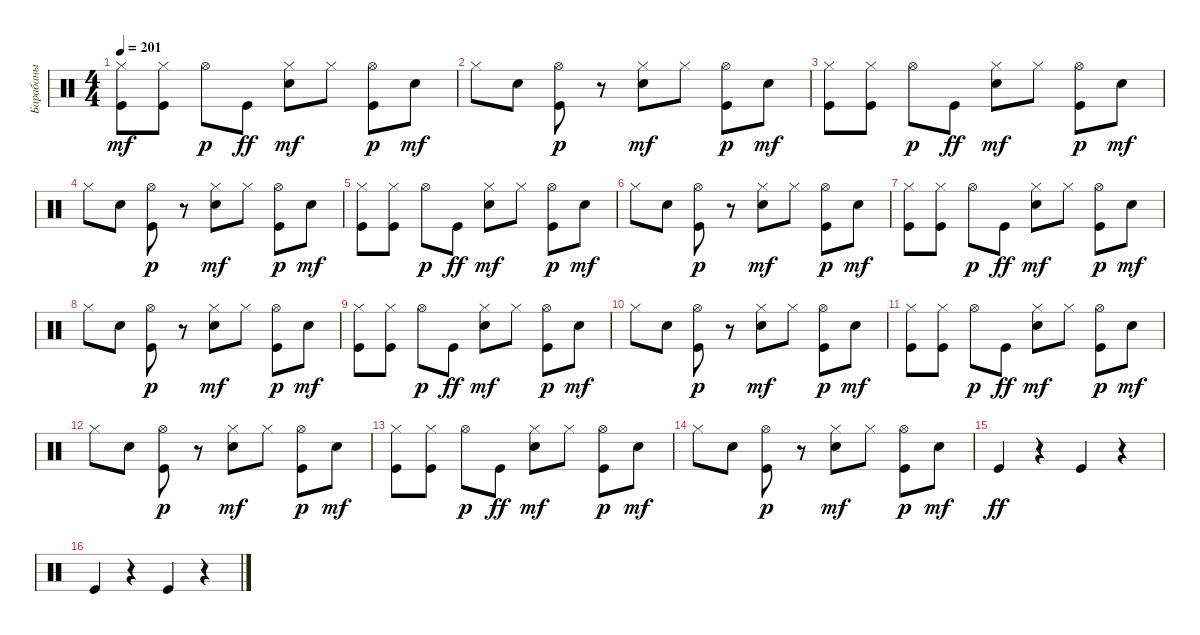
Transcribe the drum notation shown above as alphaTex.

\track ("Барабаны" "Барабаны") {instrument percussion}
\staff {score}
\articulation defaults
\ts (4 4)
\tempo 201
\clef neutral
\ks c
("Kick (hit)" "Hi-Hat (closed)").8{dy mf} ("Kick (hit)" "Hi-Hat (closed)").8 "Hi-Hat (open)".8{dy p} "Kick (hit)".8{dy ff} ("Snare (hit) 2" "Hi-Hat (closed)").8{dy mf} "Hi-Hat (closed)".8 ("Kick (hit)" "Hi-Hat (open)").8{dy p} "Snare (hit) 2".8{dy mf} |
"Hi-Hat (closed)".8 "Snare (hit) 2".8 ("Kick (hit)" "Hi-Hat (open)").8{dy p} r.8 ("Snare (hit) 2" "Hi-Hat (closed)").8{dy mf} "Hi-Hat (closed)".8 ("Kick (hit)" "Hi-Hat (open)").8{dy p} "Snare (hit) 2".8{dy mf} |
("Kick (hit)" "Hi-Hat (closed)").8 ("Kick (hit)" "Hi-Hat (closed)").8 "Hi-Hat (open)".8{dy p} "Kick (hit)".8{dy ff} ("Snare (hit) 2" "Hi-Hat (closed)").8{dy mf} "Hi-Hat (closed)".8 ("Kick (hit)" "Hi-Hat (open)").8{dy p} "Snare (hit) 2".8{dy mf} |
"Hi-Hat (closed)".8 "Snare (hit) 2".8 ("Kick (hit)" "Hi-Hat (open)").8{dy p} r.8 ("Snare (hit) 2" "Hi-Hat (closed)").8{dy mf} "Hi-Hat (closed)".8 ("Kick (hit)" "Hi-Hat (open)").8{dy p} "Snare (hit) 2".8{dy mf} |
("Kick (hit)" "Hi-Hat (closed)").8 ("Kick (hit)" "Hi-Hat (closed)").8 "Hi-Hat (open)".8{dy p} "Kick (hit)".8{dy ff} ("Snare (hit) 2" "Hi-Hat (closed)").8{dy mf} "Hi-Hat (closed)".8 ("Kick (hit)" "Hi-Hat (open)").8{dy p} "Snare (hit) 2".8{dy mf} |
"Hi-Hat (closed)".8 "Snare (hit) 2".8 ("Kick (hit)" "Hi-Hat (open)").8{dy p} r.8 ("Snare (hit) 2" "Hi-Hat (closed)").8{dy mf} "Hi-Hat (closed)".8 ("Kick (hit)" "Hi-Hat (open)").8{dy p} "Snare (hit) 2".8{dy mf} |
("Kick (hit)" "Hi-Hat (closed)").8 ("Kick (hit)" "Hi-Hat (closed)").8 "Hi-Hat (open)".8{dy p} "Kick (hit)".8{dy ff} ("Snare (hit) 2" "Hi-Hat (closed)").8{dy mf} "Hi-Hat (closed)".8 ("Kick (hit)" "Hi-Hat (open)").8{dy p} "Snare (hit) 2".8{dy mf} |
"Hi-Hat (closed)".8 "Snare (hit) 2".8 ("Kick (hit)" "Hi-Hat (open)").8{dy p} r.8 ("Snare (hit) 2" "Hi-Hat (closed)").8{dy mf} "Hi-Hat (closed)".8 ("Kick (hit)" "Hi-Hat (open)").8{dy p} "Snare (hit) 2".8{dy mf} |
("Kick (hit)" "Hi-Hat (closed)").8 ("Kick (hit)" "Hi-Hat (closed)").8 "Hi-Hat (open)".8{dy p} "Kick (hit)".8{dy ff} ("Snare (hit) 2" "Hi-Hat (closed)").8{dy mf} "Hi-Hat (closed)".8 ("Kick (hit)" "Hi-Hat (open)").8{dy p} "Snare (hit) 2".8{dy mf} |
"Hi-Hat (closed)".8 "Snare (hit) 2".8 ("Kick (hit)" "Hi-Hat (open)").8{dy p} r.8 ("Snare (hit) 2" "Hi-Hat (closed)").8{dy mf} "Hi-Hat (closed)".8 ("Kick (hit)" "Hi-Hat (open)").8{dy p} "Snare (hit) 2".8{dy mf} |
("Kick (hit)" "Hi-Hat (closed)").8 ("Kick (hit)" "Hi-Hat (closed)").8 "Hi-Hat (open)".8{dy p} "Kick (hit)".8{dy ff} ("Snare (hit) 2" "Hi-Hat (closed)").8{dy mf} "Hi-Hat (closed)".8 ("Kick (hit)" "Hi-Hat (open)").8{dy p} "Snare (hit) 2".8{dy mf} |
"Hi-Hat (closed)".8 "Snare (hit) 2".8 ("Kick (hit)" "Hi-Hat (open)").8{dy p} r.8 ("Snare (hit) 2" "Hi-Hat (closed)").8{dy mf} "Hi-Hat (closed)".8 ("Kick (hit)" "Hi-Hat (open)").8{dy p} "Snare (hit) 2".8{dy mf} |
("Kick (hit)" "Hi-Hat (closed)").8 ("Kick (hit)" "Hi-Hat (closed)").8 "Hi-Hat (open)".8{dy p} "Kick (hit)".8{dy ff} ("Snare (hit) 2" "Hi-Hat (closed)").8{dy mf} "Hi-Hat (closed)".8 ("Kick (hit)" "Hi-Hat (open)").8{dy p} "Snare (hit) 2".8{dy mf} |
"Hi-Hat (closed)".8 "Snare (hit) 2".8 ("Kick (hit)" "Hi-Hat (open)").8{dy p} r.8 ("Snare (hit) 2" "Hi-Hat (closed)").8{dy mf} "Hi-Hat (closed)".8 ("Kick (hit)" "Hi-Hat (open)").8{dy p} "Snare (hit) 2".8{dy mf} |
"Kick (hit)".4{dy ff} r.4 "Kick (hit)".4 r.4 |
"Kick (hit)".4 r.4 "Kick (hit)".4 r.4
